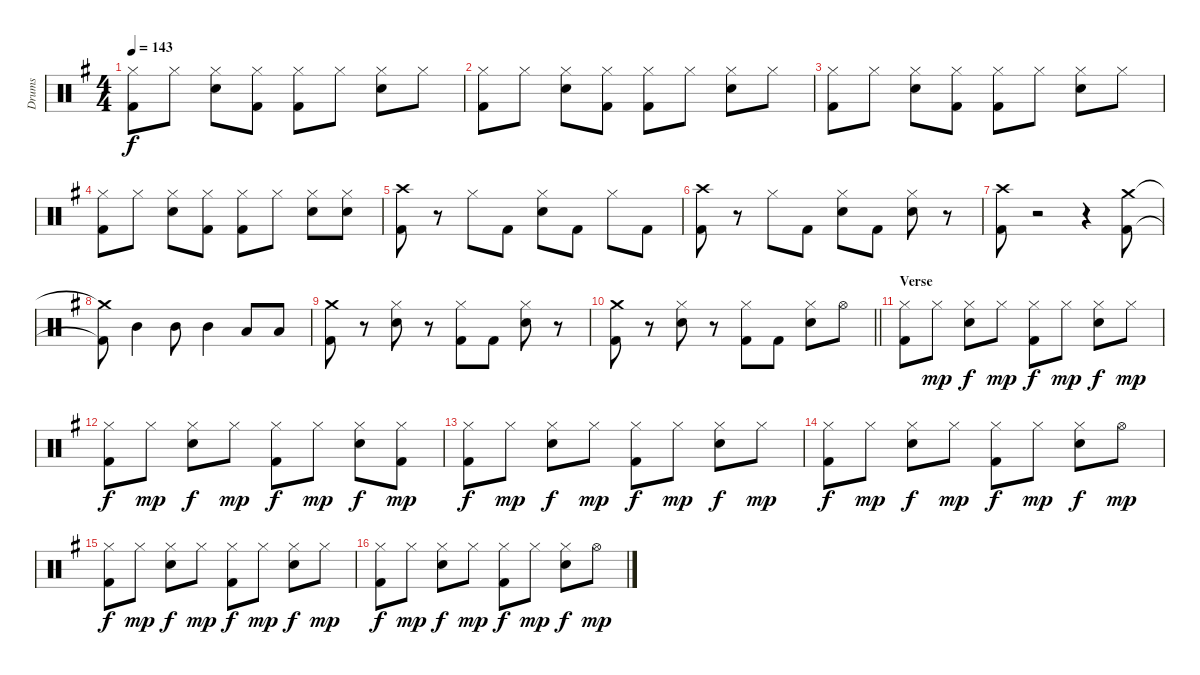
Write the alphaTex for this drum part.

\track ("Drums" "Drums") {instrument percussion}
\staff {score}
\articulation defaults
\ts (4 4)
\tempo 143
\clef neutral
\ks g
("Hi-Hat (closed)" "Kick (hit) 2").8{dy f} "Hi-Hat (closed)".8 ("Hi-Hat (closed)" "Electric Snare (hit)").8 ("Hi-Hat (closed)" "Kick (hit) 2").8 ("Hi-Hat (closed)" "Kick (hit) 2").8 "Hi-Hat (closed)".8 ("Hi-Hat (closed)" "Electric Snare (hit)").8 "Hi-Hat (closed)".8 |
("Hi-Hat (closed)" "Kick (hit) 2").8 "Hi-Hat (closed)".8 ("Hi-Hat (closed)" "Electric Snare (hit)").8 ("Hi-Hat (closed)" "Kick (hit) 2").8 ("Hi-Hat (closed)" "Kick (hit) 2").8 "Hi-Hat (closed)".8 ("Hi-Hat (closed)" "Electric Snare (hit)").8 "Hi-Hat (closed)".8 |
("Hi-Hat (closed)" "Kick (hit) 2").8 "Hi-Hat (closed)".8 ("Hi-Hat (closed)" "Electric Snare (hit)").8 ("Hi-Hat (closed)" "Kick (hit) 2").8 ("Hi-Hat (closed)" "Kick (hit) 2").8 "Hi-Hat (closed)".8 ("Hi-Hat (closed)" "Electric Snare (hit)").8 "Hi-Hat (closed)".8 |
("Hi-Hat (closed)" "Kick (hit) 2").8 "Hi-Hat (closed)".8 ("Hi-Hat (closed)" "Electric Snare (hit)").8 ("Hi-Hat (closed)" "Kick (hit) 2").8 ("Hi-Hat (closed)" "Kick (hit) 2").8 "Hi-Hat (closed)".8 ("Hi-Hat (closed)" "Electric Snare (hit)").8 ("Hi-Hat (closed)" "Electric Snare (hit)").8 |
("Crash high (hit)" "Kick (hit) 2").8 r.8 "Hi-Hat (closed)".8 "Kick (hit) 2".8 ("Hi-Hat (closed)" "Electric Snare (hit)").8 "Kick (hit) 2".8 "Hi-Hat (closed)".8 "Kick (hit) 2".8 |
("Crash high (hit)" "Kick (hit) 2").8 r.8 "Hi-Hat (closed)".8 "Kick (hit) 2".8 ("Hi-Hat (closed)" "Electric Snare (hit)").8 "Kick (hit) 2".8 ("Hi-Hat (closed)" "Electric Snare (hit)").8 r.8 |
("Crash high (hit)" "Kick (hit) 2").8 r.2 r.4 ("Crash medium (hit)" "Kick (hit) 2").8 |
("Crash medium (hit)"{t} "Kick (hit) 2"{t}).8 "Mid Tom (hit)".4 "Mid Tom (hit)".8 "Mid Tom (hit)".4 "Low Tom (hit)".8 "Low Tom (hit)".8 |
("Crash medium (hit)" "Kick (hit) 2").8 r.8 ("Hi-Hat (closed)" "Electric Snare (hit)").8 r.8 ("Hi-Hat (closed)" "Kick (hit) 2").8 "Kick (hit) 2".8 ("Hi-Hat (closed)" "Electric Snare (hit)").8 r.8 |
\barLineRight lightlight
("Crash medium (hit)" "Kick (hit) 2").8 r.8 ("Hi-Hat (closed)" "Electric Snare (hit)").8 r.8 ("Hi-Hat (closed)" "Kick (hit) 2").8 "Kick (hit) 2".8 ("Hi-Hat (closed)" "Electric Snare (hit)").8 "Hi-Hat (open)".8 |
\section ("" "Verse")
("Hi-Hat (closed)" "Kick (hit) 2").8 "Hi-Hat (closed)".8{dy mp} ("Hi-Hat (closed)" "Electric Snare (hit)").8{dy f} "Hi-Hat (closed)".8{dy mp} ("Hi-Hat (closed)" "Kick (hit) 2").8{dy f} "Hi-Hat (closed)".8{dy mp} ("Hi-Hat (closed)" "Electric Snare (hit)").8{dy f} "Hi-Hat (closed)".8{dy mp} |
("Hi-Hat (closed)" "Kick (hit) 2").8{dy f} "Hi-Hat (closed)".8{dy mp} ("Hi-Hat (closed)" "Electric Snare (hit)").8{dy f} "Hi-Hat (closed)".8{dy mp} ("Hi-Hat (closed)" "Kick (hit) 2").8{dy f} "Hi-Hat (closed)".8{dy mp} ("Hi-Hat (closed)" "Electric Snare (hit)").8{dy f} ("Hi-Hat (closed)" "Kick (hit) 2").8{dy mp} |
("Hi-Hat (closed)" "Kick (hit) 2").8{dy f} "Hi-Hat (closed)".8{dy mp} ("Hi-Hat (closed)" "Electric Snare (hit)").8{dy f} "Hi-Hat (closed)".8{dy mp} ("Hi-Hat (closed)" "Kick (hit) 2").8{dy f} "Hi-Hat (closed)".8{dy mp} ("Hi-Hat (closed)" "Electric Snare (hit)").8{dy f} "Hi-Hat (closed)".8{dy mp} |
("Hi-Hat (closed)" "Kick (hit) 2").8{dy f} "Hi-Hat (closed)".8{dy mp} ("Hi-Hat (closed)" "Electric Snare (hit)").8{dy f} "Hi-Hat (closed)".8{dy mp} ("Hi-Hat (closed)" "Kick (hit) 2").8{dy f} "Hi-Hat (closed)".8{dy mp} ("Hi-Hat (closed)" "Electric Snare (hit)").8{dy f} "Hi-Hat (open)".8{dy mp} |
("Hi-Hat (closed)" "Kick (hit) 2").8{dy f} "Hi-Hat (closed)".8{dy mp} ("Hi-Hat (closed)" "Electric Snare (hit)").8{dy f} "Hi-Hat (closed)".8{dy mp} ("Hi-Hat (closed)" "Kick (hit) 2").8{dy f} "Hi-Hat (closed)".8{dy mp} ("Hi-Hat (closed)" "Electric Snare (hit)").8{dy f} "Hi-Hat (closed)".8{dy mp} |
("Hi-Hat (closed)" "Kick (hit) 2").8{dy f} "Hi-Hat (closed)".8{dy mp} ("Hi-Hat (closed)" "Electric Snare (hit)").8{dy f} "Hi-Hat (closed)".8{dy mp} ("Hi-Hat (closed)" "Kick (hit) 2").8{dy f} "Hi-Hat (closed)".8{dy mp} ("Hi-Hat (closed)" "Electric Snare (hit)").8{dy f} "Hi-Hat (open)".8{dy mp}
